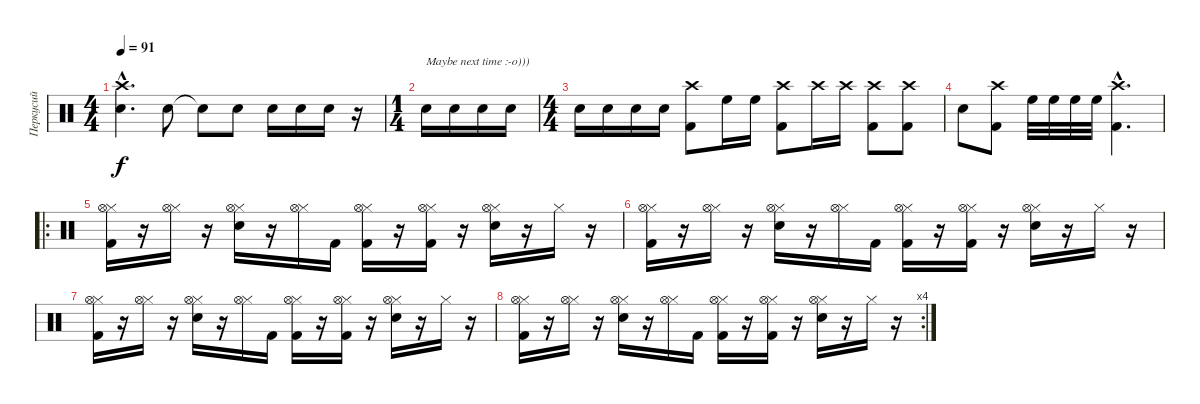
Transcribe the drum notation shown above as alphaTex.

\track ("Перкусий" "Перкусий") {instrument percussion}
\staff {score}
\articulation defaults
\ts (4 4)
\tempo 91
\clef neutral
\ks c
("Crash high (hit)"{hac} "Electric Snare (hit)"{hac}).4{d dy f} "Electric Snare (hit)".8 "Electric Snare (hit)"{t}.8 "Electric Snare (hit)".8 "Electric Snare (hit)".16 "Electric Snare (hit)".16 "Electric Snare (hit)".16 r.16 |
\ts (1 4)
"Electric Snare (hit)".16{txt "Maybe next time :-o)))"} "Electric Snare (hit)".16 "Electric Snare (hit)".16 "Electric Snare (hit)".16 |
\ts (4 4)
"Electric Snare (hit)".16 "Electric Snare (hit)".16 "Electric Snare (hit)".16 "Electric Snare (hit)".16 ("Kick (hit) 2" "Crash high (hit)").8 "High Floor Tom (hit)".16 "High Floor Tom (hit)".16 ("Kick (hit) 2" "Crash high (hit)").8 "Crash high (hit)".16 "Crash high (hit)".16 ("Kick (hit) 2" "Crash high (hit)").8 ("Kick (hit) 2" "Crash high (hit)").8 |
"Electric Snare (hit)".8 ("Kick (hit) 2" "Crash high (hit)").8 "High Floor Tom (hit)".32 "High Floor Tom (hit)".32 "High Floor Tom (hit)".32 "High Floor Tom (hit)".32 ("Kick (hit) 2"{hac} "Crash high (hit)"{hac}).4{d} |
\ro
("Kick (hit) 2" "Hi-Hat (closed)" "Hi-Hat (open)").16 r.16 ("Hi-Hat (closed)" "Hi-Hat (open)").16 r.16 ("Electric Snare (hit)" "Hi-Hat (closed)" "Hi-Hat (open)").16 r.16 ("Hi-Hat (closed)" "Hi-Hat (open)").16 "Kick (hit) 2".16 ("Kick (hit) 2" "Hi-Hat (closed)" "Hi-Hat (open)").16 r.16 ("Kick (hit) 2" "Hi-Hat (closed)" "Hi-Hat (open)").16 r.16 ("Electric Snare (hit)" "Hi-Hat (closed)" "Hi-Hat (open)").16 r.16 "Hi-Hat (closed)".16 r.16 |
("Kick (hit) 2" "Hi-Hat (closed)" "Hi-Hat (open)").16 r.16 ("Hi-Hat (closed)" "Hi-Hat (open)").16 r.16 ("Electric Snare (hit)" "Hi-Hat (closed)" "Hi-Hat (open)").16 r.16 ("Hi-Hat (closed)" "Hi-Hat (open)").16 "Kick (hit) 2".16 ("Kick (hit) 2" "Hi-Hat (closed)" "Hi-Hat (open)").16 r.16 ("Kick (hit) 2" "Hi-Hat (closed)" "Hi-Hat (open)").16 r.16 ("Electric Snare (hit)" "Hi-Hat (closed)" "Hi-Hat (open)").16 r.16 "Hi-Hat (closed)".16 r.16 |
("Kick (hit) 2" "Hi-Hat (closed)" "Hi-Hat (open)").16 r.16 ("Hi-Hat (closed)" "Hi-Hat (open)").16 r.16 ("Electric Snare (hit)" "Hi-Hat (closed)" "Hi-Hat (open)").16 r.16 ("Hi-Hat (closed)" "Hi-Hat (open)").16 "Kick (hit) 2".16 ("Kick (hit) 2" "Hi-Hat (closed)" "Hi-Hat (open)").16 r.16 ("Kick (hit) 2" "Hi-Hat (closed)" "Hi-Hat (open)").16 r.16 ("Electric Snare (hit)" "Hi-Hat (closed)" "Hi-Hat (open)").16 r.16 "Hi-Hat (closed)".16 r.16 |
\rc 4
("Kick (hit) 2" "Hi-Hat (closed)" "Hi-Hat (open)").16 r.16 ("Hi-Hat (closed)" "Hi-Hat (open)").16 r.16 ("Electric Snare (hit)" "Hi-Hat (closed)" "Hi-Hat (open)").16 r.16 ("Hi-Hat (closed)" "Hi-Hat (open)").16 "Kick (hit) 2".16 ("Kick (hit) 2" "Hi-Hat (closed)" "Hi-Hat (open)").16 r.16 ("Kick (hit) 2" "Hi-Hat (closed)" "Hi-Hat (open)").16 r.16 ("Electric Snare (hit)" "Hi-Hat (closed)" "Hi-Hat (open)").16 r.16 "Hi-Hat (closed)".16 r.16
